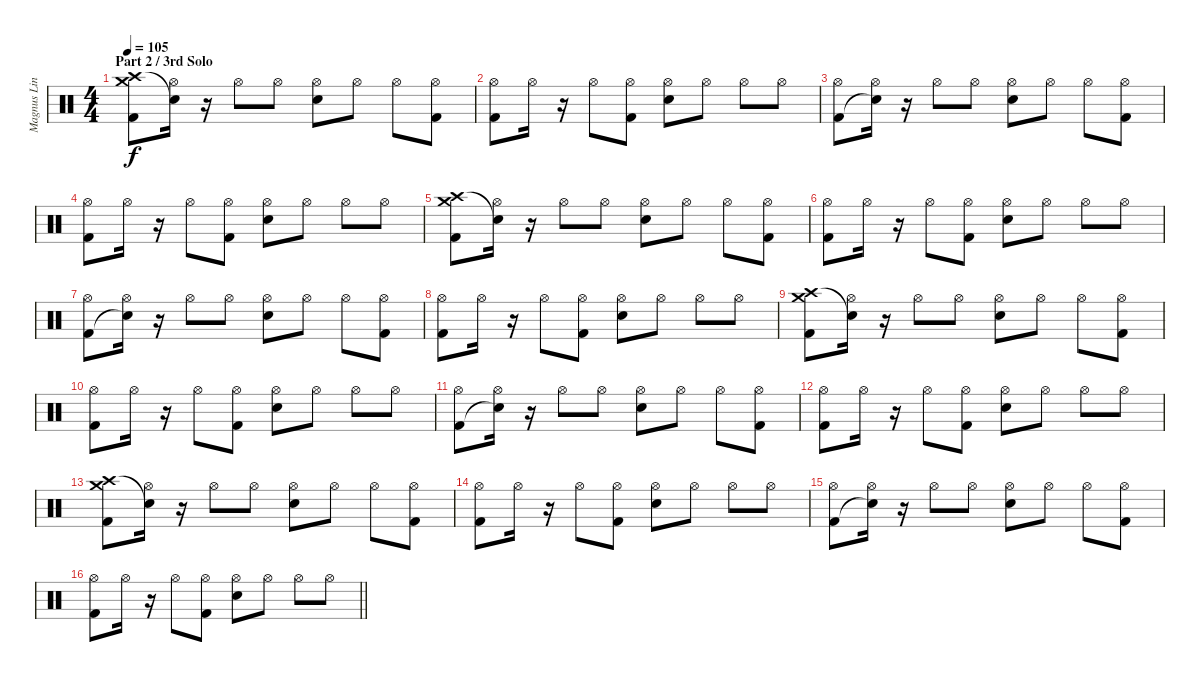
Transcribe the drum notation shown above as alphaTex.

\track ("Magnus Lindberg" "Magnus Lin") {instrument percussion}
\staff {score}
\articulation defaults
\ts (4 4)
\section ("" "Part 2 / 3rd Solo")
\tempo 105
\clef neutral
\ks c
("Crash medium (hit)" "Crash high (hit)" "Kick (hit) 2").8{dy f} ("Hi-Hat (open)" "Snare (hit)"{t}).16 r.16 "Hi-Hat (open)".8 "Hi-Hat (open)".8 ("Hi-Hat (open)" "Snare (hit) 2").8 "Hi-Hat (open)".8 "Hi-Hat (open)".8 ("Hi-Hat (open)" "Kick (hit) 2").8 |
("Hi-Hat (open)" "Kick (hit) 2").8 "Hi-Hat (open)".16 r.16 "Hi-Hat (open)".8 ("Hi-Hat (open)" "Kick (hit) 2").8 ("Hi-Hat (open)" "Snare (hit) 2").8 "Hi-Hat (open)".8 "Hi-Hat (open)".8 "Hi-Hat (open)".8 |
("Hi-Hat (open)" "Kick (hit) 2").8 ("Hi-Hat (open)" "Snare (hit)"{t}).16 r.16 "Hi-Hat (open)".8 "Hi-Hat (open)".8 ("Hi-Hat (open)" "Snare (hit) 2").8 "Hi-Hat (open)".8 "Hi-Hat (open)".8 ("Hi-Hat (open)" "Kick (hit) 2").8 |
("Hi-Hat (open)" "Kick (hit) 2").8 "Hi-Hat (open)".16 r.16 "Hi-Hat (open)".8 ("Hi-Hat (open)" "Kick (hit) 2").8 ("Hi-Hat (open)" "Snare (hit) 2").8 "Hi-Hat (open)".8 "Hi-Hat (open)".8 "Hi-Hat (open)".8 |
("Crash medium (hit)" "Crash high (hit)" "Kick (hit) 2").8 ("Hi-Hat (open)" "Snare (hit)"{t}).16 r.16 "Hi-Hat (open)".8 "Hi-Hat (open)".8 ("Hi-Hat (open)" "Snare (hit) 2").8 "Hi-Hat (open)".8 "Hi-Hat (open)".8 ("Hi-Hat (open)" "Kick (hit) 2").8 |
("Hi-Hat (open)" "Kick (hit) 2").8 "Hi-Hat (open)".16 r.16 "Hi-Hat (open)".8 ("Hi-Hat (open)" "Kick (hit) 2").8 ("Hi-Hat (open)" "Snare (hit) 2").8 "Hi-Hat (open)".8 "Hi-Hat (open)".8 "Hi-Hat (open)".8 |
("Hi-Hat (open)" "Kick (hit) 2").8 ("Hi-Hat (open)" "Snare (hit)"{t}).16 r.16 "Hi-Hat (open)".8 "Hi-Hat (open)".8 ("Hi-Hat (open)" "Snare (hit) 2").8 "Hi-Hat (open)".8 "Hi-Hat (open)".8 ("Hi-Hat (open)" "Kick (hit) 2").8 |
("Hi-Hat (open)" "Kick (hit) 2").8 "Hi-Hat (open)".16 r.16 "Hi-Hat (open)".8 ("Hi-Hat (open)" "Kick (hit) 2").8 ("Hi-Hat (open)" "Snare (hit) 2").8 "Hi-Hat (open)".8 "Hi-Hat (open)".8 "Hi-Hat (open)".8 |
("Crash medium (hit)" "Crash high (hit)" "Kick (hit) 2").8 ("Hi-Hat (open)" "Snare (hit)"{t}).16 r.16 "Hi-Hat (open)".8 "Hi-Hat (open)".8 ("Hi-Hat (open)" "Snare (hit) 2").8 "Hi-Hat (open)".8 "Hi-Hat (open)".8 ("Hi-Hat (open)" "Kick (hit) 2").8 |
("Hi-Hat (open)" "Kick (hit) 2").8 "Hi-Hat (open)".16 r.16 "Hi-Hat (open)".8 ("Hi-Hat (open)" "Kick (hit) 2").8 ("Hi-Hat (open)" "Snare (hit) 2").8 "Hi-Hat (open)".8 "Hi-Hat (open)".8 "Hi-Hat (open)".8 |
("Hi-Hat (open)" "Kick (hit) 2").8 ("Hi-Hat (open)" "Snare (hit)"{t}).16 r.16 "Hi-Hat (open)".8 "Hi-Hat (open)".8 ("Hi-Hat (open)" "Snare (hit) 2").8 "Hi-Hat (open)".8 "Hi-Hat (open)".8 ("Hi-Hat (open)" "Kick (hit) 2").8 |
("Hi-Hat (open)" "Kick (hit) 2").8 "Hi-Hat (open)".16 r.16 "Hi-Hat (open)".8 ("Hi-Hat (open)" "Kick (hit) 2").8 ("Hi-Hat (open)" "Snare (hit) 2").8 "Hi-Hat (open)".8 "Hi-Hat (open)".8 "Hi-Hat (open)".8 |
("Crash medium (hit)" "Crash high (hit)" "Kick (hit) 2").8 ("Hi-Hat (open)" "Snare (hit)"{t}).16 r.16 "Hi-Hat (open)".8 "Hi-Hat (open)".8 ("Hi-Hat (open)" "Snare (hit) 2").8 "Hi-Hat (open)".8 "Hi-Hat (open)".8 ("Hi-Hat (open)" "Kick (hit) 2").8 |
("Hi-Hat (open)" "Kick (hit) 2").8 "Hi-Hat (open)".16 r.16 "Hi-Hat (open)".8 ("Hi-Hat (open)" "Kick (hit) 2").8 ("Hi-Hat (open)" "Snare (hit) 2").8 "Hi-Hat (open)".8 "Hi-Hat (open)".8 "Hi-Hat (open)".8 |
("Hi-Hat (open)" "Kick (hit) 2").8 ("Hi-Hat (open)" "Snare (hit)"{t}).16 r.16 "Hi-Hat (open)".8 "Hi-Hat (open)".8 ("Hi-Hat (open)" "Snare (hit) 2").8 "Hi-Hat (open)".8 "Hi-Hat (open)".8 ("Hi-Hat (open)" "Kick (hit) 2").8 |
\barLineRight lightlight
("Hi-Hat (open)" "Kick (hit) 2").8 "Hi-Hat (open)".16 r.16 "Hi-Hat (open)".8 ("Hi-Hat (open)" "Kick (hit) 2").8 ("Hi-Hat (open)" "Snare (hit) 2").8 "Hi-Hat (open)".8 "Hi-Hat (open)".8 "Hi-Hat (open)".8
